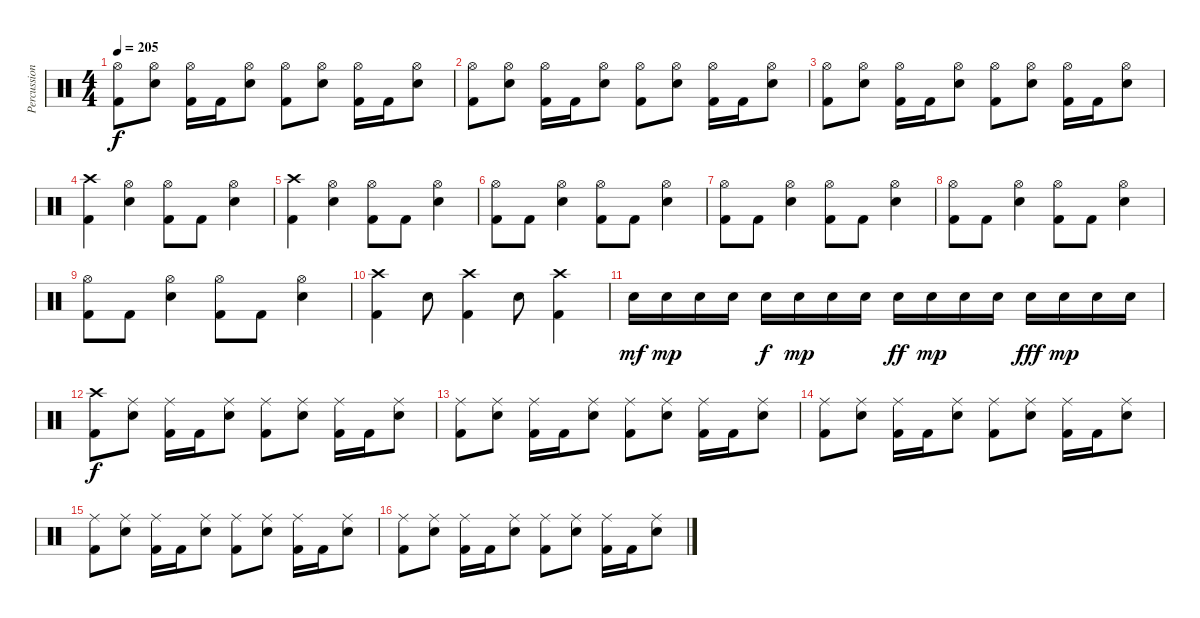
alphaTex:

\track ("Percussions" "Percussion") {instrument percussion}
\staff {score}
\articulation defaults
\ts (4 4)
\tempo 205
\clef neutral
\ks c
("Hi-Hat (open)" "Kick (hit) 2").8{dy f} ("Hi-Hat (open)" "Snare (hit) 2").8 ("Hi-Hat (open)" "Kick (hit) 2").16 "Kick (hit) 2".16 ("Hi-Hat (open)" "Snare (hit) 2").8 ("Hi-Hat (open)" "Kick (hit) 2").8 ("Hi-Hat (open)" "Snare (hit) 2").8 ("Hi-Hat (open)" "Kick (hit) 2").16 "Kick (hit) 2".16 ("Hi-Hat (open)" "Snare (hit) 2").8 |
("Hi-Hat (open)" "Kick (hit) 2").8 ("Hi-Hat (open)" "Snare (hit) 2").8 ("Hi-Hat (open)" "Kick (hit) 2").16 "Kick (hit) 2".16 ("Hi-Hat (open)" "Snare (hit) 2").8 ("Hi-Hat (open)" "Kick (hit) 2").8 ("Hi-Hat (open)" "Snare (hit) 2").8 ("Hi-Hat (open)" "Kick (hit) 2").16 "Kick (hit) 2".16 ("Hi-Hat (open)" "Snare (hit) 2").8 |
("Hi-Hat (open)" "Kick (hit) 2").8 ("Hi-Hat (open)" "Snare (hit) 2").8 ("Hi-Hat (open)" "Kick (hit) 2").16 "Kick (hit) 2".16 ("Hi-Hat (open)" "Snare (hit) 2").8 ("Hi-Hat (open)" "Kick (hit) 2").8 ("Hi-Hat (open)" "Snare (hit) 2").8 ("Hi-Hat (open)" "Kick (hit) 2").16 "Kick (hit) 2".16 ("Hi-Hat (open)" "Snare (hit) 2").8 |
("Crash high (hit)" "Kick (hit) 2").4 ("Hi-Hat (open)" "Snare (hit) 2").4 ("Hi-Hat (open)" "Kick (hit) 2").8 "Kick (hit) 2".8 ("Hi-Hat (open)" "Snare (hit) 2").4 |
("Crash high (hit)" "Kick (hit) 2").4 ("Hi-Hat (open)" "Snare (hit) 2").4 ("Hi-Hat (open)" "Kick (hit) 2").8 "Kick (hit) 2".8 ("Hi-Hat (open)" "Snare (hit) 2").4 |
("Hi-Hat (open)" "Kick (hit) 2").8 "Kick (hit) 2".8 ("Hi-Hat (open)" "Snare (hit) 2").4 ("Hi-Hat (open)" "Kick (hit) 2").8 "Kick (hit) 2".8 ("Hi-Hat (open)" "Snare (hit) 2").4 |
("Hi-Hat (open)" "Kick (hit) 2").8 "Kick (hit) 2".8 ("Hi-Hat (open)" "Snare (hit) 2").4 ("Hi-Hat (open)" "Kick (hit) 2").8 "Kick (hit) 2".8 ("Hi-Hat (open)" "Snare (hit) 2").4 |
("Hi-Hat (open)" "Kick (hit) 2").8 "Kick (hit) 2".8 ("Hi-Hat (open)" "Snare (hit) 2").4 ("Hi-Hat (open)" "Kick (hit) 2").8 "Kick (hit) 2".8 ("Hi-Hat (open)" "Snare (hit) 2").4 |
("Hi-Hat (open)" "Kick (hit) 2").8 "Kick (hit) 2".8 ("Hi-Hat (open)" "Snare (hit) 2").4 ("Hi-Hat (open)" "Kick (hit) 2").8 "Kick (hit) 2".8 ("Hi-Hat (open)" "Snare (hit) 2").4 |
("Crash high (hit)" "Kick (hit) 2").4 "Snare (hit) 2".8 ("Crash high (hit)" "Kick (hit) 2").4 "Snare (hit) 2".8 ("Crash high (hit)" "Kick (hit) 2").4 |
"Snare (hit) 2".16{dy mf} "Snare (hit) 2".16{dy mp} "Snare (hit) 2".16 "Snare (hit) 2".16 "Snare (hit) 2".16{dy f} "Snare (hit) 2".16{dy mp} "Snare (hit) 2".16 "Snare (hit) 2".16 "Snare (hit) 2".16{dy ff} "Snare (hit) 2".16{dy mp} "Snare (hit) 2".16 "Snare (hit) 2".16 "Snare (hit) 2".16{dy fff} "Snare (hit) 2".16{dy mp} "Snare (hit) 2".16 "Snare (hit) 2".16 |
("Crash high (hit)" "Kick (hit) 2").8{dy f} ("Ride (middle)" "Snare (hit) 2").8 ("Ride (middle)" "Kick (hit) 2").16 "Kick (hit) 2".16 ("Ride (middle)" "Snare (hit) 2").8 ("Ride (middle)" "Kick (hit) 2").8 ("Ride (middle)" "Snare (hit) 2").8 ("Ride (middle)" "Kick (hit) 2").16 "Kick (hit) 2".16 ("Ride (middle)" "Snare (hit) 2").8 |
("Ride (middle)" "Kick (hit) 2").8 ("Ride (middle)" "Snare (hit) 2").8 ("Ride (middle)" "Kick (hit) 2").16 "Kick (hit) 2".16 ("Ride (middle)" "Snare (hit) 2").8 ("Ride (middle)" "Kick (hit) 2").8 ("Ride (middle)" "Snare (hit) 2").8 ("Ride (middle)" "Kick (hit) 2").16 "Kick (hit) 2".16 ("Ride (middle)" "Snare (hit) 2").8 |
("Ride (middle)" "Kick (hit) 2").8 ("Ride (middle)" "Snare (hit) 2").8 ("Ride (middle)" "Kick (hit) 2").16 "Kick (hit) 2".16 ("Ride (middle)" "Snare (hit) 2").8 ("Ride (middle)" "Kick (hit) 2").8 ("Ride (middle)" "Snare (hit) 2").8 ("Ride (middle)" "Kick (hit) 2").16 "Kick (hit) 2".16 ("Ride (middle)" "Snare (hit) 2").8 |
("Ride (middle)" "Kick (hit) 2").8 ("Ride (middle)" "Snare (hit) 2").8 ("Ride (middle)" "Kick (hit) 2").16 "Kick (hit) 2".16 ("Ride (middle)" "Snare (hit) 2").8 ("Ride (middle)" "Kick (hit) 2").8 ("Ride (middle)" "Snare (hit) 2").8 ("Ride (middle)" "Kick (hit) 2").16 "Kick (hit) 2".16 ("Ride (middle)" "Snare (hit) 2").8 |
("Ride (middle)" "Kick (hit) 2").8 ("Ride (middle)" "Snare (hit) 2").8 ("Ride (middle)" "Kick (hit) 2").16 "Kick (hit) 2".16 ("Ride (middle)" "Snare (hit) 2").8 ("Ride (middle)" "Kick (hit) 2").8 ("Ride (middle)" "Snare (hit) 2").8 ("Ride (middle)" "Kick (hit) 2").16 "Kick (hit) 2".16 ("Ride (middle)" "Snare (hit) 2").8
